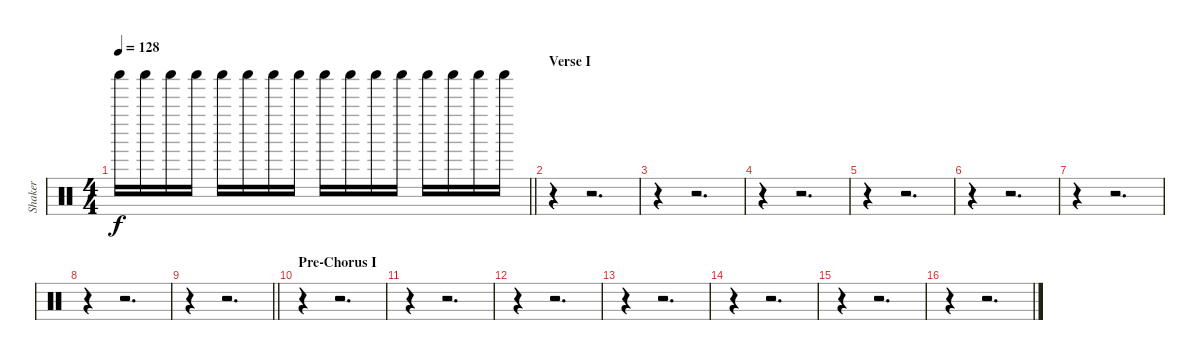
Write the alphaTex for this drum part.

\track ("Shaker" "Shaker") {instrument percussion}
\staff {score}
\articulation defaults
\ts (4 4)
\tempo 128
\clef neutral
\barLineRight lightlight
\ks c "Shaker (hit)".16{dy f} "Shaker (hit)".16 "Shaker (hit)".16 "Shaker (hit)".16 "Shaker (hit)".16 "Shaker (hit)".16 "Shaker (hit)".16 "Shaker (hit)".16 "Shaker (hit)".16 "Shaker (hit)".16 "Shaker (hit)".16 "Shaker (hit)".16 "Shaker (hit)".16 "Shaker (hit)".16 "Shaker (hit)".16 "Shaker (hit)".16
|
\section ("" "Verse I")
r.4 r.2{d} |
r.4 r.2{d} |
r.4 r.2{d} |
r.4 r.2{d} |
r.4 r.2{d} |
r.4 r.2{d} |
r.4 r.2{d} |
\barLineRight lightlight
r.4 r.2{d} |
\section ("" "Pre-Chorus I")
r.4 r.2{d} |
r.4 r.2{d} |
r.4 r.2{d} |
r.4 r.2{d} |
r.4 r.2{d} |
r.4 r.2{d} |
r.4 r.2{d}
